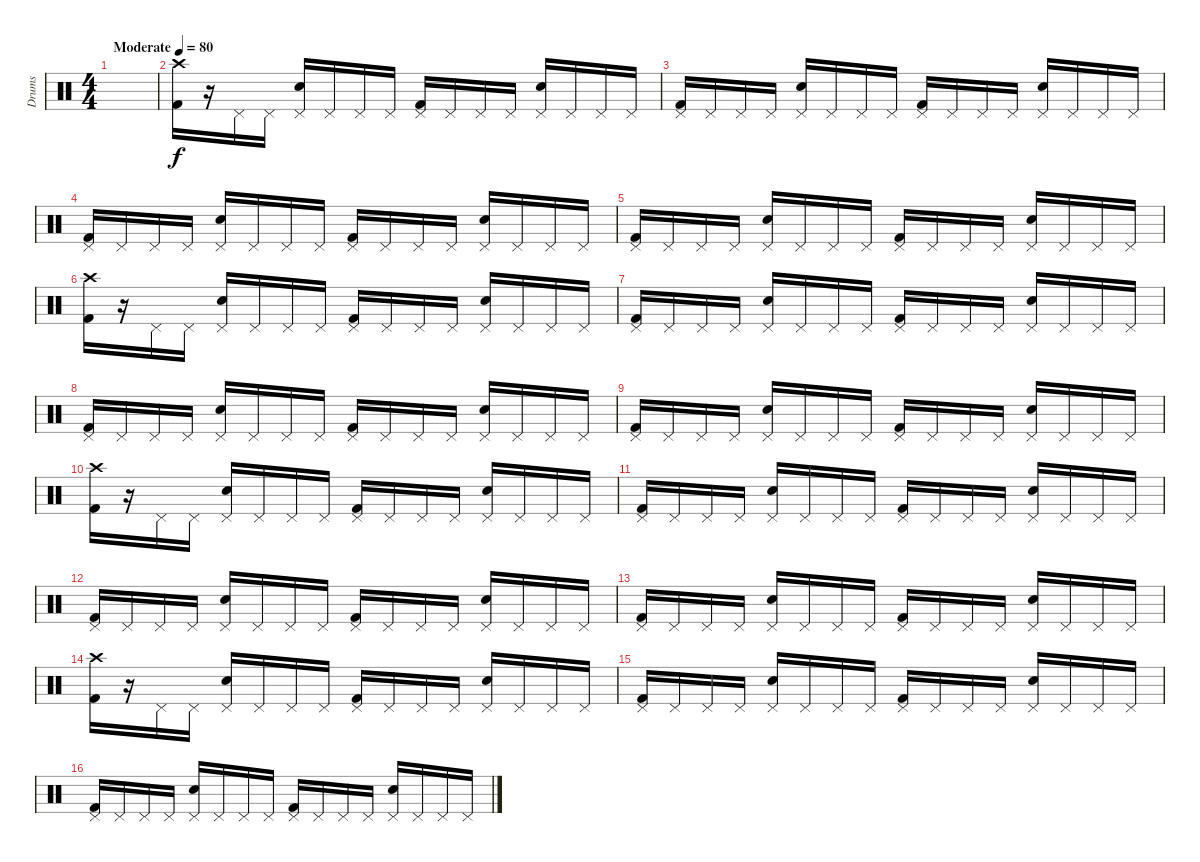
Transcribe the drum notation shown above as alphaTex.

\track ("Drums" "Drums") {instrument percussion}
\staff {score}
\articulation defaults
\ts (4 4)
\tempo (80 "Moderate")
\clef neutral
\ks c
|
("Crash high (hit)" "Kick (hit) 2").16 r.16 "Pedal Hi-Hat (hit)".16 "Pedal Hi-Hat (hit)".16 ("Pedal Hi-Hat (hit)" "Snare (hit) 2").16 "Pedal Hi-Hat (hit)".16 "Pedal Hi-Hat (hit)".16 "Pedal Hi-Hat (hit)".16 ("Pedal Hi-Hat (hit)" "Kick (hit) 2").16 "Pedal Hi-Hat (hit)".16 "Pedal Hi-Hat (hit)".16 "Pedal Hi-Hat (hit)".16 ("Pedal Hi-Hat (hit)" "Snare (hit) 2").16 "Pedal Hi-Hat (hit)".16 "Pedal Hi-Hat (hit)".16 "Pedal Hi-Hat (hit)".16 |
("Pedal Hi-Hat (hit)" "Kick (hit) 2").16 "Pedal Hi-Hat (hit)".16 "Pedal Hi-Hat (hit)".16 "Pedal Hi-Hat (hit)".16 ("Pedal Hi-Hat (hit)" "Snare (hit) 2").16 "Pedal Hi-Hat (hit)".16 "Pedal Hi-Hat (hit)".16 "Pedal Hi-Hat (hit)".16 ("Pedal Hi-Hat (hit)" "Kick (hit) 2").16 "Pedal Hi-Hat (hit)".16 "Pedal Hi-Hat (hit)".16 "Pedal Hi-Hat (hit)".16 ("Pedal Hi-Hat (hit)" "Snare (hit) 2").16 "Pedal Hi-Hat (hit)".16 "Pedal Hi-Hat (hit)".16 "Pedal Hi-Hat (hit)".16 |
("Pedal Hi-Hat (hit)" "Kick (hit) 2").16 "Pedal Hi-Hat (hit)".16 "Pedal Hi-Hat (hit)".16 "Pedal Hi-Hat (hit)".16 ("Pedal Hi-Hat (hit)" "Snare (hit) 2").16 "Pedal Hi-Hat (hit)".16 "Pedal Hi-Hat (hit)".16 "Pedal Hi-Hat (hit)".16 ("Pedal Hi-Hat (hit)" "Kick (hit) 2").16 "Pedal Hi-Hat (hit)".16 "Pedal Hi-Hat (hit)".16 "Pedal Hi-Hat (hit)".16 ("Pedal Hi-Hat (hit)" "Snare (hit) 2").16 "Pedal Hi-Hat (hit)".16 "Pedal Hi-Hat (hit)".16 "Pedal Hi-Hat (hit)".16 |
("Pedal Hi-Hat (hit)" "Kick (hit) 2").16 "Pedal Hi-Hat (hit)".16 "Pedal Hi-Hat (hit)".16 "Pedal Hi-Hat (hit)".16 ("Pedal Hi-Hat (hit)" "Snare (hit) 2").16 "Pedal Hi-Hat (hit)".16 "Pedal Hi-Hat (hit)".16 "Pedal Hi-Hat (hit)".16 ("Pedal Hi-Hat (hit)" "Kick (hit) 2").16 "Pedal Hi-Hat (hit)".16 "Pedal Hi-Hat (hit)".16 "Pedal Hi-Hat (hit)".16 ("Pedal Hi-Hat (hit)" "Snare (hit) 2").16 "Pedal Hi-Hat (hit)".16 "Pedal Hi-Hat (hit)".16 "Pedal Hi-Hat (hit)".16 |
("Crash high (hit)" "Kick (hit) 2").16 r.16 "Pedal Hi-Hat (hit)".16 "Pedal Hi-Hat (hit)".16 ("Pedal Hi-Hat (hit)" "Snare (hit) 2").16 "Pedal Hi-Hat (hit)".16 "Pedal Hi-Hat (hit)".16 "Pedal Hi-Hat (hit)".16 ("Pedal Hi-Hat (hit)" "Kick (hit) 2").16 "Pedal Hi-Hat (hit)".16 "Pedal Hi-Hat (hit)".16 "Pedal Hi-Hat (hit)".16 ("Pedal Hi-Hat (hit)" "Snare (hit) 2").16 "Pedal Hi-Hat (hit)".16 "Pedal Hi-Hat (hit)".16 "Pedal Hi-Hat (hit)".16 |
("Pedal Hi-Hat (hit)" "Kick (hit) 2").16 "Pedal Hi-Hat (hit)".16 "Pedal Hi-Hat (hit)".16 "Pedal Hi-Hat (hit)".16 ("Pedal Hi-Hat (hit)" "Snare (hit) 2").16 "Pedal Hi-Hat (hit)".16 "Pedal Hi-Hat (hit)".16 "Pedal Hi-Hat (hit)".16 ("Pedal Hi-Hat (hit)" "Kick (hit) 2").16 "Pedal Hi-Hat (hit)".16 "Pedal Hi-Hat (hit)".16 "Pedal Hi-Hat (hit)".16 ("Pedal Hi-Hat (hit)" "Snare (hit) 2").16 "Pedal Hi-Hat (hit)".16 "Pedal Hi-Hat (hit)".16 "Pedal Hi-Hat (hit)".16 |
("Pedal Hi-Hat (hit)" "Kick (hit) 2").16 "Pedal Hi-Hat (hit)".16 "Pedal Hi-Hat (hit)".16 "Pedal Hi-Hat (hit)".16 ("Pedal Hi-Hat (hit)" "Snare (hit) 2").16 "Pedal Hi-Hat (hit)".16 "Pedal Hi-Hat (hit)".16 "Pedal Hi-Hat (hit)".16 ("Pedal Hi-Hat (hit)" "Kick (hit) 2").16 "Pedal Hi-Hat (hit)".16 "Pedal Hi-Hat (hit)".16 "Pedal Hi-Hat (hit)".16 ("Pedal Hi-Hat (hit)" "Snare (hit) 2").16 "Pedal Hi-Hat (hit)".16 "Pedal Hi-Hat (hit)".16 "Pedal Hi-Hat (hit)".16 |
("Pedal Hi-Hat (hit)" "Kick (hit) 2").16 "Pedal Hi-Hat (hit)".16 "Pedal Hi-Hat (hit)".16 "Pedal Hi-Hat (hit)".16 ("Pedal Hi-Hat (hit)" "Snare (hit) 2").16 "Pedal Hi-Hat (hit)".16 "Pedal Hi-Hat (hit)".16 "Pedal Hi-Hat (hit)".16 ("Pedal Hi-Hat (hit)" "Kick (hit) 2").16 "Pedal Hi-Hat (hit)".16 "Pedal Hi-Hat (hit)".16 "Pedal Hi-Hat (hit)".16 ("Pedal Hi-Hat (hit)" "Snare (hit) 2").16 "Pedal Hi-Hat (hit)".16 "Pedal Hi-Hat (hit)".16 "Pedal Hi-Hat (hit)".16 |
("Crash high (hit)" "Kick (hit) 2").16 r.16 "Pedal Hi-Hat (hit)".16 "Pedal Hi-Hat (hit)".16 ("Pedal Hi-Hat (hit)" "Snare (hit) 2").16 "Pedal Hi-Hat (hit)".16 "Pedal Hi-Hat (hit)".16 "Pedal Hi-Hat (hit)".16 ("Pedal Hi-Hat (hit)" "Kick (hit) 2").16 "Pedal Hi-Hat (hit)".16 "Pedal Hi-Hat (hit)".16 "Pedal Hi-Hat (hit)".16 ("Pedal Hi-Hat (hit)" "Snare (hit) 2").16 "Pedal Hi-Hat (hit)".16 "Pedal Hi-Hat (hit)".16 "Pedal Hi-Hat (hit)".16 |
("Pedal Hi-Hat (hit)" "Kick (hit) 2").16 "Pedal Hi-Hat (hit)".16 "Pedal Hi-Hat (hit)".16 "Pedal Hi-Hat (hit)".16 ("Pedal Hi-Hat (hit)" "Snare (hit) 2").16 "Pedal Hi-Hat (hit)".16 "Pedal Hi-Hat (hit)".16 "Pedal Hi-Hat (hit)".16 ("Pedal Hi-Hat (hit)" "Kick (hit) 2").16 "Pedal Hi-Hat (hit)".16 "Pedal Hi-Hat (hit)".16 "Pedal Hi-Hat (hit)".16 ("Pedal Hi-Hat (hit)" "Snare (hit) 2").16 "Pedal Hi-Hat (hit)".16 "Pedal Hi-Hat (hit)".16 "Pedal Hi-Hat (hit)".16 |
("Pedal Hi-Hat (hit)" "Kick (hit) 2").16 "Pedal Hi-Hat (hit)".16 "Pedal Hi-Hat (hit)".16 "Pedal Hi-Hat (hit)".16 ("Pedal Hi-Hat (hit)" "Snare (hit) 2").16 "Pedal Hi-Hat (hit)".16 "Pedal Hi-Hat (hit)".16 "Pedal Hi-Hat (hit)".16 ("Pedal Hi-Hat (hit)" "Kick (hit) 2").16 "Pedal Hi-Hat (hit)".16 "Pedal Hi-Hat (hit)".16 "Pedal Hi-Hat (hit)".16 ("Pedal Hi-Hat (hit)" "Snare (hit) 2").16 "Pedal Hi-Hat (hit)".16 "Pedal Hi-Hat (hit)".16 "Pedal Hi-Hat (hit)".16 |
("Pedal Hi-Hat (hit)" "Kick (hit) 2").16 "Pedal Hi-Hat (hit)".16 "Pedal Hi-Hat (hit)".16 "Pedal Hi-Hat (hit)".16 ("Pedal Hi-Hat (hit)" "Snare (hit) 2").16 "Pedal Hi-Hat (hit)".16 "Pedal Hi-Hat (hit)".16 "Pedal Hi-Hat (hit)".16 ("Pedal Hi-Hat (hit)" "Kick (hit) 2").16 "Pedal Hi-Hat (hit)".16 "Pedal Hi-Hat (hit)".16 "Pedal Hi-Hat (hit)".16 ("Pedal Hi-Hat (hit)" "Snare (hit) 2").16 "Pedal Hi-Hat (hit)".16 "Pedal Hi-Hat (hit)".16 "Pedal Hi-Hat (hit)".16 |
("Crash high (hit)" "Kick (hit) 2").16 r.16 "Pedal Hi-Hat (hit)".16 "Pedal Hi-Hat (hit)".16 ("Pedal Hi-Hat (hit)" "Snare (hit) 2").16 "Pedal Hi-Hat (hit)".16 "Pedal Hi-Hat (hit)".16 "Pedal Hi-Hat (hit)".16 ("Pedal Hi-Hat (hit)" "Kick (hit) 2").16 "Pedal Hi-Hat (hit)".16 "Pedal Hi-Hat (hit)".16 "Pedal Hi-Hat (hit)".16 ("Pedal Hi-Hat (hit)" "Snare (hit) 2").16 "Pedal Hi-Hat (hit)".16 "Pedal Hi-Hat (hit)".16 "Pedal Hi-Hat (hit)".16 |
("Pedal Hi-Hat (hit)" "Kick (hit) 2").16 "Pedal Hi-Hat (hit)".16 "Pedal Hi-Hat (hit)".16 "Pedal Hi-Hat (hit)".16 ("Pedal Hi-Hat (hit)" "Snare (hit) 2").16 "Pedal Hi-Hat (hit)".16 "Pedal Hi-Hat (hit)".16 "Pedal Hi-Hat (hit)".16 ("Pedal Hi-Hat (hit)" "Kick (hit) 2").16 "Pedal Hi-Hat (hit)".16 "Pedal Hi-Hat (hit)".16 "Pedal Hi-Hat (hit)".16 ("Pedal Hi-Hat (hit)" "Snare (hit) 2").16 "Pedal Hi-Hat (hit)".16 "Pedal Hi-Hat (hit)".16 "Pedal Hi-Hat (hit)".16 |
("Pedal Hi-Hat (hit)" "Kick (hit) 2").16 "Pedal Hi-Hat (hit)".16 "Pedal Hi-Hat (hit)".16 "Pedal Hi-Hat (hit)".16 ("Pedal Hi-Hat (hit)" "Snare (hit) 2").16 "Pedal Hi-Hat (hit)".16 "Pedal Hi-Hat (hit)".16 "Pedal Hi-Hat (hit)".16 ("Pedal Hi-Hat (hit)" "Kick (hit) 2").16 "Pedal Hi-Hat (hit)".16 "Pedal Hi-Hat (hit)".16 "Pedal Hi-Hat (hit)".16 ("Pedal Hi-Hat (hit)" "Snare (hit) 2").16 "Pedal Hi-Hat (hit)".16 "Pedal Hi-Hat (hit)".16 "Pedal Hi-Hat (hit)".16
